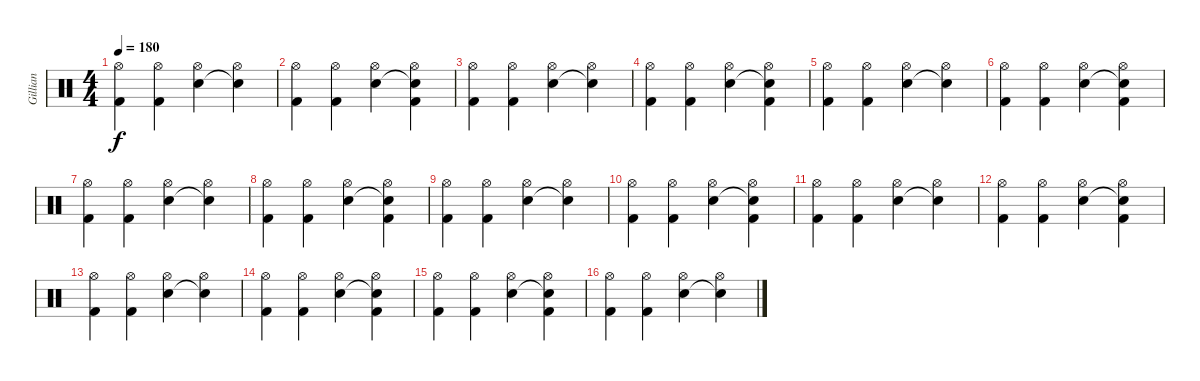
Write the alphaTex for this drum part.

\track ("Gillian" "Gillian") {instrument percussion}
\staff {score}
\articulation defaults
\ts (4 4)
\tempo 180
\clef neutral
\ks c
("Hi-Hat (open)" "Kick (hit) 2").4{dy f} ("Hi-Hat (open)" "Kick (hit) 2").4 ("Hi-Hat (open)" "Electric Snare (hit)").4 ("Hi-Hat (open)" "Snare (hit)"{t}).4 |
("Hi-Hat (open)" "Kick (hit) 2").4 ("Hi-Hat (open)" "Kick (hit) 2").4 ("Hi-Hat (open)" "Electric Snare (hit)").4 ("Hi-Hat (open)" "Snare (hit)"{t} "Kick (hit) 2").4 |
("Hi-Hat (open)" "Kick (hit) 2").4 ("Hi-Hat (open)" "Kick (hit) 2").4 ("Hi-Hat (open)" "Electric Snare (hit)").4 ("Hi-Hat (open)" "Snare (hit)"{t}).4 |
("Hi-Hat (open)" "Kick (hit) 2").4 ("Hi-Hat (open)" "Kick (hit) 2").4 ("Hi-Hat (open)" "Electric Snare (hit)").4 ("Hi-Hat (open)" "Snare (hit)"{t} "Kick (hit) 2").4 |
("Hi-Hat (open)" "Kick (hit) 2").4 ("Hi-Hat (open)" "Kick (hit) 2").4 ("Hi-Hat (open)" "Electric Snare (hit)").4 ("Hi-Hat (open)" "Snare (hit)"{t}).4 |
("Hi-Hat (open)" "Kick (hit) 2").4 ("Hi-Hat (open)" "Kick (hit) 2").4 ("Hi-Hat (open)" "Electric Snare (hit)").4 ("Hi-Hat (open)" "Snare (hit)"{t} "Kick (hit) 2").4 |
("Hi-Hat (open)" "Kick (hit) 2").4 ("Hi-Hat (open)" "Kick (hit) 2").4 ("Hi-Hat (open)" "Electric Snare (hit)").4 ("Hi-Hat (open)" "Snare (hit)"{t}).4 |
("Hi-Hat (open)" "Kick (hit) 2").4 ("Hi-Hat (open)" "Kick (hit) 2").4 ("Hi-Hat (open)" "Electric Snare (hit)").4 ("Hi-Hat (open)" "Snare (hit)"{t} "Kick (hit) 2").4 |
("Hi-Hat (open)" "Kick (hit) 2").4 ("Hi-Hat (open)" "Kick (hit) 2").4 ("Hi-Hat (open)" "Electric Snare (hit)").4 ("Hi-Hat (open)" "Snare (hit)"{t}).4 |
("Hi-Hat (open)" "Kick (hit) 2").4 ("Hi-Hat (open)" "Kick (hit) 2").4 ("Hi-Hat (open)" "Electric Snare (hit)").4 ("Hi-Hat (open)" "Snare (hit)"{t} "Kick (hit) 2").4 |
("Hi-Hat (open)" "Kick (hit) 2").4 ("Hi-Hat (open)" "Kick (hit) 2").4 ("Hi-Hat (open)" "Electric Snare (hit)").4 ("Hi-Hat (open)" "Snare (hit)"{t}).4 |
("Hi-Hat (open)" "Kick (hit) 2").4 ("Hi-Hat (open)" "Kick (hit) 2").4 ("Hi-Hat (open)" "Electric Snare (hit)").4 ("Hi-Hat (open)" "Snare (hit)"{t} "Kick (hit) 2").4 |
("Hi-Hat (open)" "Kick (hit) 2").4 ("Hi-Hat (open)" "Kick (hit) 2").4 ("Hi-Hat (open)" "Electric Snare (hit)").4 ("Hi-Hat (open)" "Snare (hit)"{t}).4 |
("Hi-Hat (open)" "Kick (hit) 2").4 ("Hi-Hat (open)" "Kick (hit) 2").4 ("Hi-Hat (open)" "Electric Snare (hit)").4 ("Hi-Hat (open)" "Snare (hit)"{t} "Kick (hit) 2").4 |
("Hi-Hat (open)" "Kick (hit) 2").4 ("Hi-Hat (open)" "Kick (hit) 2").4 ("Hi-Hat (open)" "Electric Snare (hit)").4 ("Hi-Hat (open)" "Snare (hit)"{t} "Kick (hit) 2").4 |
("Hi-Hat (open)" "Kick (hit) 2").4 ("Hi-Hat (open)" "Kick (hit) 2").4 ("Hi-Hat (open)" "Electric Snare (hit)").4 ("Hi-Hat (open)" "Snare (hit)"{t}).4
